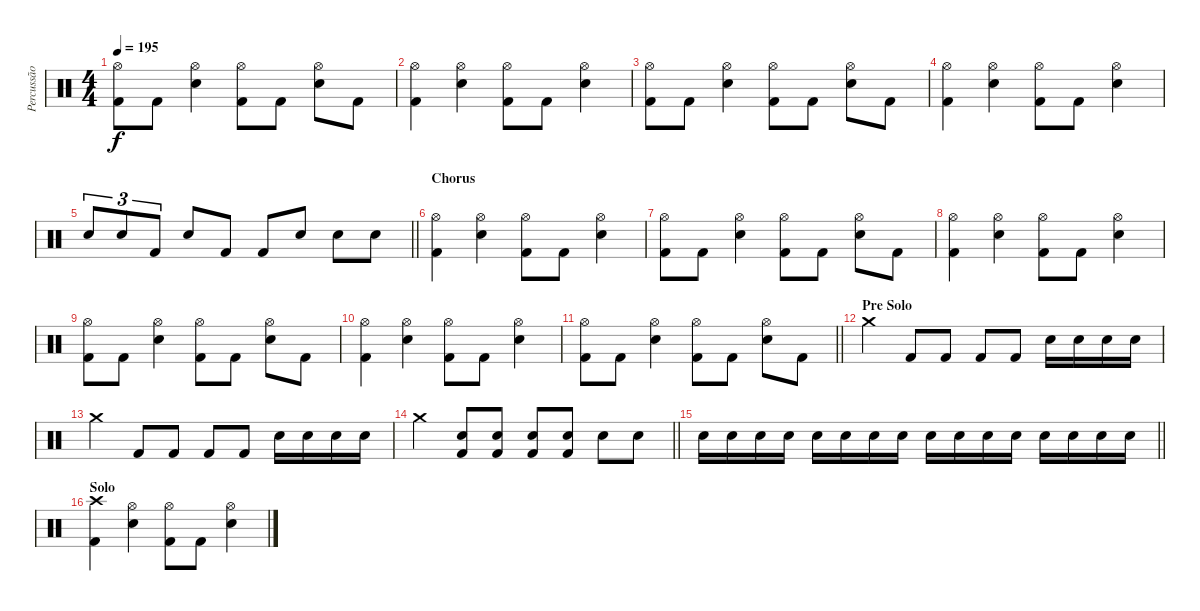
\track ("Percussão" "Percussão") {instrument percussion}
\staff {score}
\articulation defaults
\ts (4 4)
\tempo 195
\clef neutral
\ks c
("Hi-Hat (open)" "Kick (hit) 2").8{dy f} "Kick (hit) 2".8 ("Hi-Hat (open)" "Snare (hit) 2").4 ("Hi-Hat (open)" "Kick (hit) 2").8 "Kick (hit) 2".8 ("Hi-Hat (open)" "Snare (hit) 2").8 "Kick (hit) 2".8 |
("Hi-Hat (open)" "Kick (hit) 2").4 ("Hi-Hat (open)" "Snare (hit) 2").4 ("Hi-Hat (open)" "Kick (hit) 2").8 "Kick (hit) 2".8 ("Hi-Hat (open)" "Snare (hit) 2").4 |
("Hi-Hat (open)" "Kick (hit) 2").8 "Kick (hit) 2".8 ("Hi-Hat (open)" "Snare (hit) 2").4 ("Hi-Hat (open)" "Kick (hit) 2").8 "Kick (hit) 2".8 ("Hi-Hat (open)" "Snare (hit) 2").8 "Kick (hit) 2".8 |
("Hi-Hat (open)" "Kick (hit) 2").4 ("Hi-Hat (open)" "Snare (hit) 2").4 ("Hi-Hat (open)" "Kick (hit) 2").8 "Kick (hit) 2".8 ("Hi-Hat (open)" "Snare (hit) 2").4 |
\barLineRight lightlight "Snare (hit) 2".8{tu (3 2)} "Snare (hit) 2".8{tu (3 2)} "Kick (hit) 2".8{tu (3 2)} "Snare (hit) 2".8 "Kick (hit) 2".8 "Kick (hit) 2".8 "Snare (hit) 2".8 "Snare (hit) 2".8 "Snare (hit) 2".8
|
\section ("" "Chorus")
("Hi-Hat (open)" "Kick (hit) 2").4 ("Hi-Hat (open)" "Snare (hit) 2").4 ("Hi-Hat (open)" "Kick (hit) 2").8 "Kick (hit) 2".8 ("Hi-Hat (open)" "Snare (hit) 2").4 |
("Hi-Hat (open)" "Kick (hit) 2").8 "Kick (hit) 2".8 ("Hi-Hat (open)" "Snare (hit) 2").4 ("Hi-Hat (open)" "Kick (hit) 2").8 "Kick (hit) 2".8 ("Hi-Hat (open)" "Snare (hit) 2").8 "Kick (hit) 2".8 |
("Hi-Hat (open)" "Kick (hit) 2").4 ("Hi-Hat (open)" "Snare (hit) 2").4 ("Hi-Hat (open)" "Kick (hit) 2").8 "Kick (hit) 2".8 ("Hi-Hat (open)" "Snare (hit) 2").4 |
("Hi-Hat (open)" "Kick (hit) 2").8 "Kick (hit) 2".8 ("Hi-Hat (open)" "Snare (hit) 2").4 ("Hi-Hat (open)" "Kick (hit) 2").8 "Kick (hit) 2".8 ("Hi-Hat (open)" "Snare (hit) 2").8 "Kick (hit) 2".8 |
("Hi-Hat (open)" "Kick (hit) 2").4 ("Hi-Hat (open)" "Snare (hit) 2").4 ("Hi-Hat (open)" "Kick (hit) 2").8 "Kick (hit) 2".8 ("Hi-Hat (open)" "Snare (hit) 2").4 |
\barLineRight lightlight
("Hi-Hat (open)" "Kick (hit) 2").8 "Kick (hit) 2".8 ("Hi-Hat (open)" "Snare (hit) 2").4 ("Hi-Hat (open)" "Kick (hit) 2").8 "Kick (hit) 2".8 ("Hi-Hat (open)" "Snare (hit) 2").8 "Kick (hit) 2".8 |
\section ("" "Pre Solo")
"Crash medium (hit)".4 "Kick (hit) 2".8 "Kick (hit) 2".8 "Kick (hit) 2".8 "Kick (hit) 2".8 "Snare (hit) 2".16 "Snare (hit) 2".16 "Snare (hit) 2".16 "Snare (hit) 2".16 |
"Crash medium (hit)".4 "Kick (hit) 2".8 "Kick (hit) 2".8 "Kick (hit) 2".8 "Kick (hit) 2".8 "Snare (hit) 2".16 "Snare (hit) 2".16 "Snare (hit) 2".16 "Snare (hit) 2".16 |
\barLineRight lightlight "Crash medium (hit)".4
("Snare (hit) 2" "Kick (hit) 2").8 ("Snare (hit) 2" "Kick (hit) 2").8 ("Snare (hit) 2" "Kick (hit) 2").8 ("Snare (hit) 2" "Kick (hit) 2").8 "Snare (hit) 2".8 "Snare (hit) 2".8 |
\barLineRight lightlight "Snare (hit) 2".16 "Snare (hit) 2".16 "Snare (hit) 2".16 "Snare (hit) 2".16 "Snare (hit) 2".16 "Snare (hit) 2".16 "Snare (hit) 2".16 "Snare (hit) 2".16 "Snare (hit) 2".16 "Snare (hit) 2".16 "Snare (hit) 2".16 "Snare (hit) 2".16 "Snare (hit) 2".16 "Snare (hit) 2".16 "Snare (hit) 2".16 "Snare (hit) 2".16
|
\section ("" "Solo")
("Crash high (hit)" "Kick (hit) 2").4 ("Hi-Hat (open)" "Snare (hit) 2").4 ("Hi-Hat (open)" "Kick (hit) 2").8 "Kick (hit) 2".8 ("Hi-Hat (open)" "Snare (hit) 2").4
